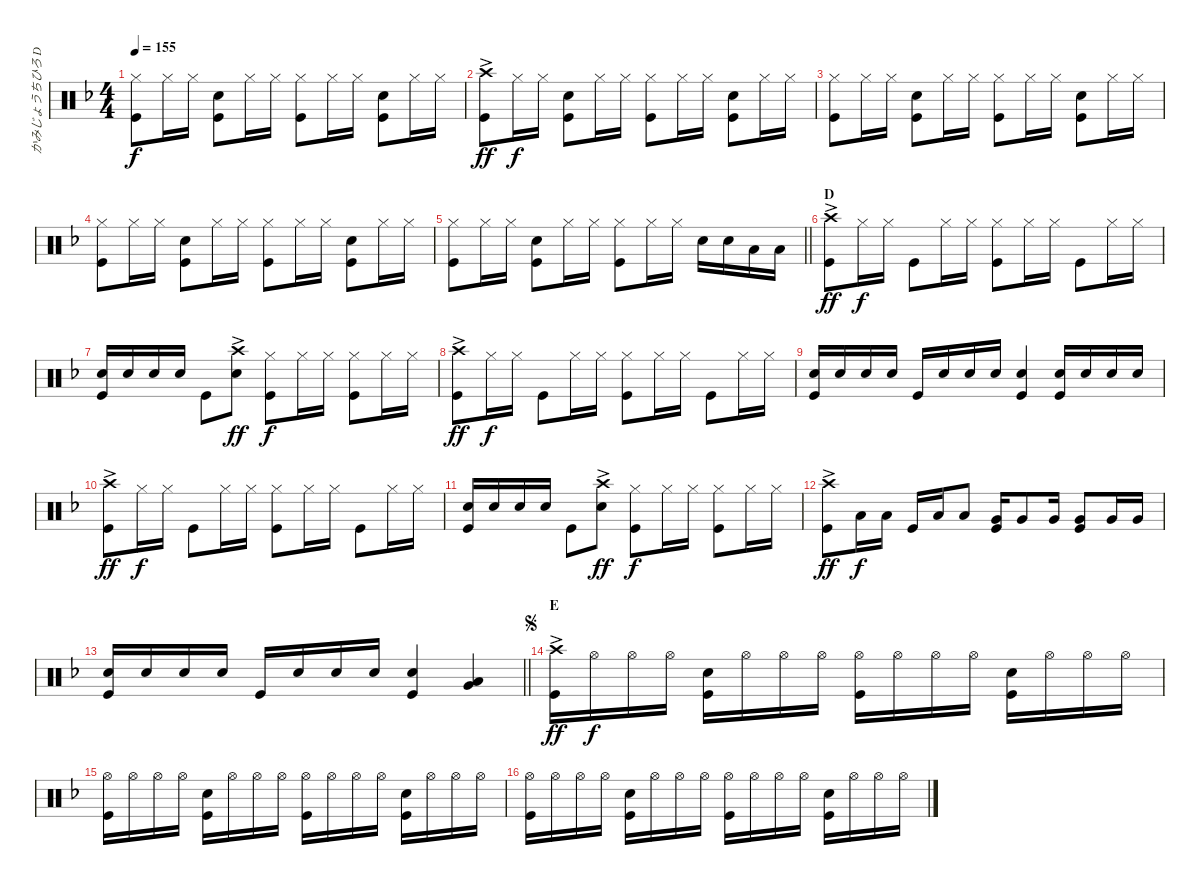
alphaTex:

\track ("かみじょうちひろ DRUMS" "かみじょうちひろ D") {instrument percussion}
\staff {score}
\articulation defaults
\ts (4 4)
\tempo 155
\clef neutral
\ks f
("Hi-Hat (closed)" "Kick (hit)").8{dy f} "Hi-Hat (closed)".16 "Hi-Hat (closed)".16 ("Snare (hit) 2" "Kick (hit)").8 "Hi-Hat (closed)".16 "Hi-Hat (closed)".16 ("Hi-Hat (closed)" "Kick (hit)").8 "Hi-Hat (closed)".16 "Hi-Hat (closed)".16 ("Snare (hit) 2" "Kick (hit)").8 "Hi-Hat (closed)".16 "Hi-Hat (closed)".16 |
("Crash high (hit)"{ac} "Kick (hit)").8{dy ff} "Hi-Hat (closed)".16{dy f} "Hi-Hat (closed)".16 ("Snare (hit) 2" "Kick (hit)").8 "Hi-Hat (closed)".16 "Hi-Hat (closed)".16 ("Hi-Hat (closed)" "Kick (hit)").8 "Hi-Hat (closed)".16 "Hi-Hat (closed)".16 ("Snare (hit) 2" "Kick (hit)").8 "Hi-Hat (closed)".16 "Hi-Hat (closed)".16 |
("Hi-Hat (closed)" "Kick (hit)").8 "Hi-Hat (closed)".16 "Hi-Hat (closed)".16 ("Snare (hit) 2" "Kick (hit)").8 "Hi-Hat (closed)".16 "Hi-Hat (closed)".16 ("Hi-Hat (closed)" "Kick (hit)").8 "Hi-Hat (closed)".16 "Hi-Hat (closed)".16 ("Snare (hit) 2" "Kick (hit)").8 "Hi-Hat (closed)".16 "Hi-Hat (closed)".16 |
("Hi-Hat (closed)" "Kick (hit)").8 "Hi-Hat (closed)".16 "Hi-Hat (closed)".16 ("Snare (hit) 2" "Kick (hit)").8 "Hi-Hat (closed)".16 "Hi-Hat (closed)".16 ("Hi-Hat (closed)" "Kick (hit)").8 "Hi-Hat (closed)".16 "Hi-Hat (closed)".16 ("Snare (hit) 2" "Kick (hit)").8 "Hi-Hat (closed)".16 "Hi-Hat (closed)".16 |
\barLineRight lightlight
("Hi-Hat (closed)" "Kick (hit)").8 "Hi-Hat (closed)".16 "Hi-Hat (closed)".16 ("Snare (hit) 2" "Kick (hit)").8 "Hi-Hat (closed)".16 "Hi-Hat (closed)".16 ("Hi-Hat (closed)" "Kick (hit)").8 "Hi-Hat (closed)".16 "Hi-Hat (closed)".16 "Snare (hit) 2".16 "Snare (hit) 2".16 "Low Tom (hit)".16 "Low Tom (hit)".16 |
\section ("" "D")
("Crash high (hit)"{ac} "Kick (hit)").8{dy ff} "Hi-Hat (closed)".16{dy f} "Hi-Hat (closed)".16 "Kick (hit)".8 "Hi-Hat (closed)".16 "Hi-Hat (closed)".16 ("Hi-Hat (closed)" "Kick (hit)").8 "Hi-Hat (closed)".16 "Hi-Hat (closed)".16 "Kick (hit)".8 "Hi-Hat (closed)".16 "Hi-Hat (closed)".16 |
("Snare (hit) 2" "Kick (hit)").16 "Snare (hit) 2".16 "Snare (hit) 2".16 "Snare (hit) 2".16 "Kick (hit)".8 ("Crash high (hit)"{ac} "Snare (hit) 2"{ac}).8{dy ff} ("Hi-Hat (closed)" "Kick (hit)").8{dy f} "Hi-Hat (closed)".16 "Hi-Hat (closed)".16 ("Hi-Hat (closed)" "Kick (hit)").8 "Hi-Hat (closed)".16 "Hi-Hat (closed)".16 |
("Crash high (hit)"{ac} "Kick (hit)").8{dy ff} "Hi-Hat (closed)".16{dy f} "Hi-Hat (closed)".16 "Kick (hit)".8 "Hi-Hat (closed)".16 "Hi-Hat (closed)".16 ("Hi-Hat (closed)" "Kick (hit)").8 "Hi-Hat (closed)".16 "Hi-Hat (closed)".16 "Kick (hit)".8 "Hi-Hat (closed)".16 "Hi-Hat (closed)".16 |
("Snare (hit) 2" "Kick (hit)").16 "Snare (hit) 2".16 "Snare (hit) 2".16 "Snare (hit) 2".16 "Kick (hit)".16 "Snare (hit) 2".16 "Snare (hit) 2".16 "Snare (hit) 2".16 ("Snare (hit) 2" "Kick (hit)").4 ("Snare (hit) 2" "Kick (hit)").16 "Snare (hit) 2".16 "Snare (hit) 2".16 "Snare (hit) 2".16 |
("Crash high (hit)"{ac} "Kick (hit)").8{dy ff} "Hi-Hat (closed)".16{dy f} "Hi-Hat (closed)".16 "Kick (hit)".8 "Hi-Hat (closed)".16 "Hi-Hat (closed)".16 ("Hi-Hat (closed)" "Kick (hit)").8 "Hi-Hat (closed)".16 "Hi-Hat (closed)".16 "Kick (hit)".8 "Hi-Hat (closed)".16 "Hi-Hat (closed)".16 |
("Snare (hit) 2" "Kick (hit)").16 "Snare (hit) 2".16 "Snare (hit) 2".16 "Snare (hit) 2".16 "Kick (hit)".8 ("Crash high (hit)"{ac} "Snare (hit) 2"{ac}).8{dy ff} ("Hi-Hat (closed)" "Kick (hit)").8{dy f} "Hi-Hat (closed)".16 "Hi-Hat (closed)".16 ("Hi-Hat (closed)" "Kick (hit)").8 "Hi-Hat (closed)".16 "Hi-Hat (closed)".16 |
("Crash high (hit)"{ac} "Kick (hit)").8{dy ff} "Low Tom (hit)".16{dy f} "Low Tom (hit)".16 "Kick (hit)".16 "Low Tom (hit)".16 "Low Tom (hit)".8 ("Very Low Tom (hit)" "Kick (hit)").16 "Very Low Tom (hit)".8 "Very Low Tom (hit)".16 ("Very Low Tom (hit)" "Kick (hit)").8 "Very Low Tom (hit)".16 "Very Low Tom (hit)".16 |
\barLineRight lightlight
("Snare (hit) 2" "Kick (hit)").16 "Snare (hit) 2".16 "Snare (hit) 2".16 "Snare (hit) 2".16 "Kick (hit)".16 "Snare (hit) 2".16 "Snare (hit) 2".16 "Snare (hit) 2".16 ("Snare (hit) 2" "Kick (hit)").4 ("Low Tom (hit)" "Very Low Tom (hit)").4 |
\section ("" "E")
\jump segno
("Crash high (hit)"{ac} "Kick (hit)").16{dy ff} "Hi-Hat (open)".16{dy f} "Hi-Hat (open)".16 "Hi-Hat (open)".16 ("Snare (hit) 2" "Kick (hit)").16 "Hi-Hat (open)".16 "Hi-Hat (open)".16 "Hi-Hat (open)".16 ("Hi-Hat (open)" "Kick (hit)").16 "Hi-Hat (open)".16 "Hi-Hat (open)".16 "Hi-Hat (open)".16 ("Snare (hit) 2" "Kick (hit)").16 "Hi-Hat (open)".16 "Hi-Hat (open)".16 "Hi-Hat (open)".16 |
("Hi-Hat (open)" "Kick (hit)").16 "Hi-Hat (open)".16 "Hi-Hat (open)".16 "Hi-Hat (open)".16 ("Snare (hit) 2" "Kick (hit)").16 "Hi-Hat (open)".16 "Hi-Hat (open)".16 "Hi-Hat (open)".16 ("Hi-Hat (open)" "Kick (hit)").16 "Hi-Hat (open)".16 "Hi-Hat (open)".16 "Hi-Hat (open)".16 ("Snare (hit) 2" "Kick (hit)").16 "Hi-Hat (open)".16 "Hi-Hat (open)".16 "Hi-Hat (open)".16 |
("Hi-Hat (open)" "Kick (hit)").16 "Hi-Hat (open)".16 "Hi-Hat (open)".16 "Hi-Hat (open)".16 ("Snare (hit) 2" "Kick (hit)").16 "Hi-Hat (open)".16 "Hi-Hat (open)".16 "Hi-Hat (open)".16 ("Hi-Hat (open)" "Kick (hit)").16 "Hi-Hat (open)".16 "Hi-Hat (open)".16 "Hi-Hat (open)".16 ("Snare (hit) 2" "Kick (hit)").16 "Hi-Hat (open)".16 "Hi-Hat (open)".16 "Hi-Hat (open)".16
